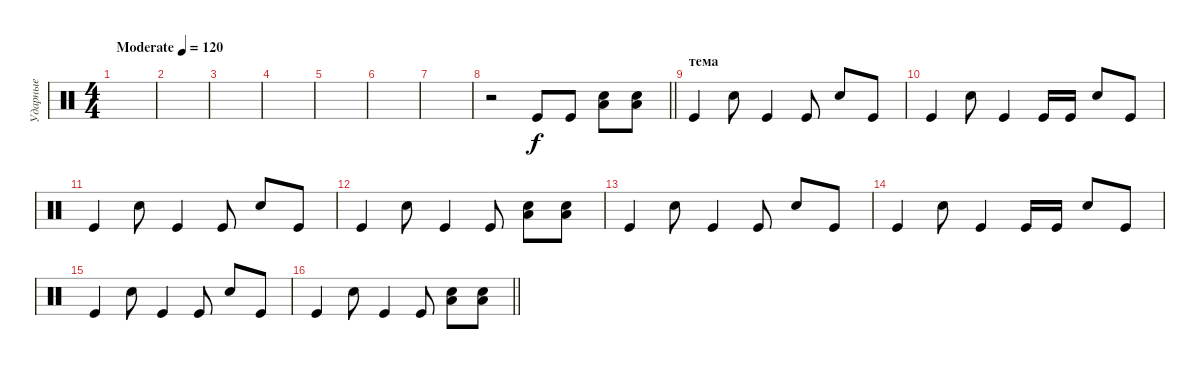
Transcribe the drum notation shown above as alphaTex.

\track ("Ударные" "Ударные") {instrument percussion}
\staff {score}
\articulation defaults
\ts (4 4)
\tempo (120 "Moderate")
\clef neutral
\ks c
|
|
|
|
|
|
|
\barLineRight lightlight
r.2 "Kick (hit)".8 "Kick (hit)".8 ("Snare (hit) 2" "Low Floor Tom (hit)").8 ("Snare (hit) 2" "Low Floor Tom (hit)").8 |
\section ("" "тема")
"Kick (hit)".4 "Snare (hit) 2".8 "Kick (hit)".4 "Kick (hit)".8 "Snare (hit) 2".8 "Kick (hit)".8 |
"Kick (hit)".4 "Snare (hit) 2".8 "Kick (hit)".4 "Kick (hit)".16 "Kick (hit)".16 "Snare (hit) 2".8 "Kick (hit)".8 |
"Kick (hit)".4 "Snare (hit) 2".8 "Kick (hit)".4 "Kick (hit)".8 "Snare (hit) 2".8 "Kick (hit)".8 |
"Kick (hit)".4 "Snare (hit) 2".8 "Kick (hit)".4 "Kick (hit)".8 ("Snare (hit) 2" "Low Floor Tom (hit)").8 ("Snare (hit) 2" "Low Floor Tom (hit)").8 |
"Kick (hit)".4 "Snare (hit) 2".8 "Kick (hit)".4 "Kick (hit)".8 "Snare (hit) 2".8 "Kick (hit)".8 |
"Kick (hit)".4 "Snare (hit) 2".8 "Kick (hit)".4 "Kick (hit)".16 "Kick (hit)".16 "Snare (hit) 2".8 "Kick (hit)".8 |
"Kick (hit)".4 "Snare (hit) 2".8 "Kick (hit)".4 "Kick (hit)".8 "Snare (hit) 2".8 "Kick (hit)".8 |
\barLineRight lightlight "Kick (hit)".4 "Snare (hit) 2".8 "Kick (hit)".4 "Kick (hit)".8
("Snare (hit) 2" "Low Floor Tom (hit)").8 ("Snare (hit) 2" "Low Floor Tom (hit)").8
